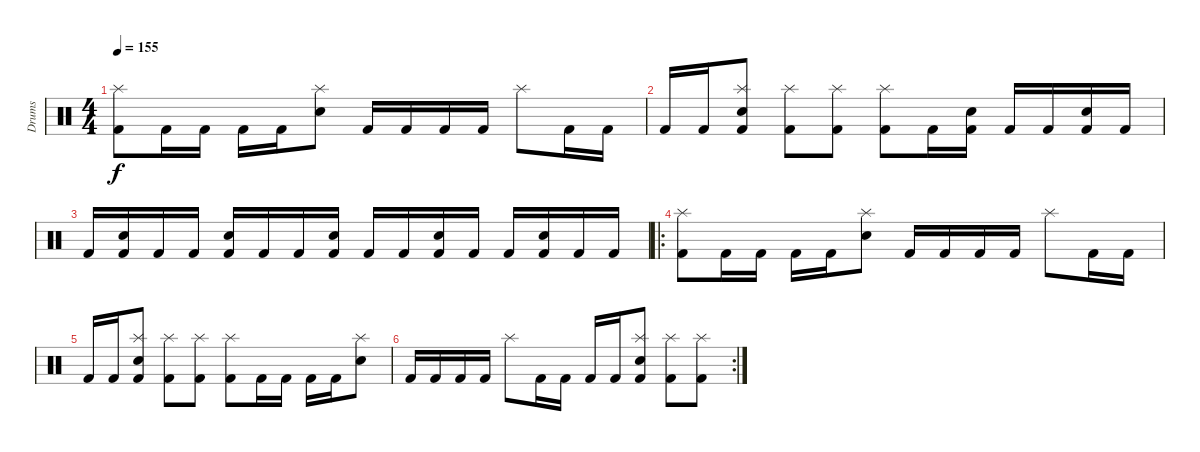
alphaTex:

\track ("Drums" "Drums") {instrument percussion}
\staff {score}
\articulation defaults
\ts (4 4)
\tempo 155
\clef neutral
\ks c
("Kick (hit) 2" "Splash (hit)").8{dy f} "Kick (hit) 2".16 "Kick (hit) 2".16 "Kick (hit) 2".16 "Kick (hit) 2".16 ("Snare (hit) 2" "Splash (hit)").8 "Kick (hit) 2".16 "Kick (hit) 2".16 "Kick (hit) 2".16 "Kick (hit) 2".16 "Splash (hit)".8 "Kick (hit) 2".16 "Kick (hit) 2".16 |
"Kick (hit) 2".16 "Kick (hit) 2".16 ("Snare (hit) 2" "Splash (hit)" "Kick (hit) 2").8 ("Kick (hit) 2" "Splash (hit)").8 ("Kick (hit) 2" "Splash (hit)").8 ("Kick (hit) 2" "Splash (hit)").8 "Kick (hit) 2".16 ("Kick (hit) 2" "Snare (hit) 2").16 "Kick (hit) 2".16 "Kick (hit) 2".16 ("Kick (hit) 2" "Snare (hit) 2").16 "Kick (hit) 2".16 |
"Kick (hit) 2".16 ("Kick (hit) 2" "Snare (hit) 2").16 "Kick (hit) 2".16 "Kick (hit) 2".16 ("Kick (hit) 2" "Snare (hit) 2").16 "Kick (hit) 2".16 "Kick (hit) 2".16 ("Kick (hit) 2" "Snare (hit) 2").16 "Kick (hit) 2".16 "Kick (hit) 2".16 ("Kick (hit) 2" "Snare (hit) 2").16 "Kick (hit) 2".16 "Kick (hit) 2".16 ("Kick (hit) 2" "Snare (hit) 2").16 "Kick (hit) 2".16 "Kick (hit) 2".16 |
\ro
("Kick (hit) 2" "Splash (hit)").8 "Kick (hit) 2".16 "Kick (hit) 2".16 "Kick (hit) 2".16 "Kick (hit) 2".16 ("Snare (hit) 2" "Splash (hit)").8 "Kick (hit) 2".16 "Kick (hit) 2".16 "Kick (hit) 2".16 "Kick (hit) 2".16 "Splash (hit)".8 "Kick (hit) 2".16 "Kick (hit) 2".16 |
"Kick (hit) 2".16 "Kick (hit) 2".16 ("Snare (hit) 2" "Splash (hit)" "Kick (hit) 2").8 ("Kick (hit) 2" "Splash (hit)").8 ("Kick (hit) 2" "Splash (hit)").8 ("Kick (hit) 2" "Splash (hit)").8 "Kick (hit) 2".16 "Kick (hit) 2".16 "Kick (hit) 2".16 "Kick (hit) 2".16 ("Snare (hit) 2" "Splash (hit)").8 |
\rc 2 "Kick (hit) 2".16 "Kick (hit) 2".16 "Kick (hit) 2".16 "Kick (hit) 2".16 "Splash (hit)".8 "Kick (hit) 2".16 "Kick (hit) 2".16 "Kick (hit) 2".16 "Kick (hit) 2".16
("Snare (hit) 2" "Splash (hit)" "Kick (hit) 2").8 ("Kick (hit) 2" "Splash (hit)").8 ("Kick (hit) 2" "Splash (hit)").8
